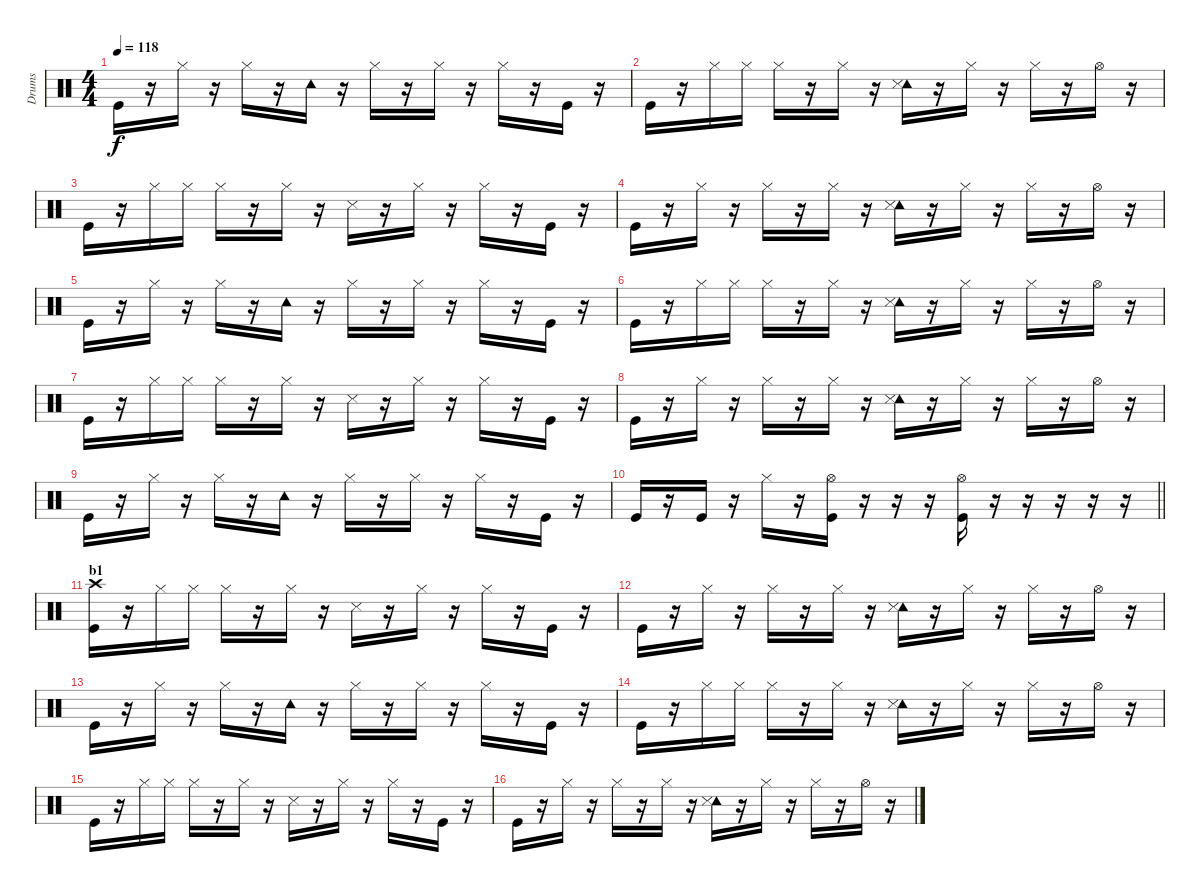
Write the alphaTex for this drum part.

\track ("Drums" "Drums") {instrument percussion}
\staff {score}
\articulation defaults
\ts (4 4)
\tempo 118
\clef neutral
\ks c "Kick (hit)".16{dy f}
r.16 "Hi-Hat (closed)".16 r.16 "Hi-Hat (closed)".16 r.16 "Tambourine (hit)".16 r.16 "Hi-Hat (closed)".16 r.16 "Hi-Hat (closed)".16 r.16 "Hi-Hat (closed)".16 r.16 "Kick (hit)".16 r.16 |
"Kick (hit)".16 r.16 "Hi-Hat (closed)".16 "Hi-Hat (closed)".16 "Hi-Hat (closed)".16 r.16 "Hi-Hat (closed)".16 r.16 ("Tambourine (hit)" "Snare (side stick) 3").16 r.16 "Hi-Hat (closed)".16 r.16 "Hi-Hat (closed)".16 r.16 "Hi-Hat (open)".16 r.16 |
"Kick (hit)".16 r.16 "Hi-Hat (closed)".16 "Hi-Hat (closed)".16 "Hi-Hat (closed)".16 r.16 "Hi-Hat (closed)".16 r.16 "Snare (side stick) 3".16 r.16 "Hi-Hat (closed)".16 r.16 "Hi-Hat (closed)".16 r.16 "Kick (hit)".16 r.16 |
"Kick (hit)".16 r.16 "Hi-Hat (closed)".16 r.16 "Hi-Hat (closed)".16 r.16 "Hi-Hat (closed)".16 r.16 ("Tambourine (hit)" "Snare (side stick) 3").16 r.16 "Hi-Hat (closed)".16 r.16 "Hi-Hat (closed)".16 r.16 "Hi-Hat (open)".16 r.16 |
"Kick (hit)".16 r.16 "Hi-Hat (closed)".16 r.16 "Hi-Hat (closed)".16 r.16 "Tambourine (hit)".16 r.16 "Hi-Hat (closed)".16 r.16 "Hi-Hat (closed)".16 r.16 "Hi-Hat (closed)".16 r.16 "Kick (hit)".16 r.16 |
"Kick (hit)".16 r.16 "Hi-Hat (closed)".16 "Hi-Hat (closed)".16 "Hi-Hat (closed)".16 r.16 "Hi-Hat (closed)".16 r.16 ("Tambourine (hit)" "Snare (side stick) 3").16 r.16 "Hi-Hat (closed)".16 r.16 "Hi-Hat (closed)".16 r.16 "Hi-Hat (open)".16 r.16 |
"Kick (hit)".16 r.16 "Hi-Hat (closed)".16 "Hi-Hat (closed)".16 "Hi-Hat (closed)".16 r.16 "Hi-Hat (closed)".16 r.16 "Snare (side stick) 3".16 r.16 "Hi-Hat (closed)".16 r.16 "Hi-Hat (closed)".16 r.16 "Kick (hit)".16 r.16 |
"Kick (hit)".16 r.16 "Hi-Hat (closed)".16 r.16 "Hi-Hat (closed)".16 r.16 "Hi-Hat (closed)".16 r.16 ("Tambourine (hit)" "Snare (side stick) 3").16 r.16 "Hi-Hat (closed)".16 r.16 "Hi-Hat (closed)".16 r.16 "Hi-Hat (open)".16 r.16 |
"Kick (hit)".16 r.16 "Hi-Hat (closed)".16 r.16 "Hi-Hat (closed)".16 r.16 "Tambourine (hit)".16 r.16 "Hi-Hat (closed)".16 r.16 "Hi-Hat (closed)".16 r.16 "Hi-Hat (closed)".16 r.16 "Kick (hit)".16 r.16 |
\barLineRight lightlight "Kick (hit)".16
r.16 "Kick (hit)".16 r.16 "Hi-Hat (closed)".16 r.16 ("Kick (hit)" "Hi-Hat (open)").16 r.16 r.16 r.16 ("Kick (hit)" "Hi-Hat (open)").16 r.16 r.16 r.16 r.16 r.16 |
\section ("" "b1")
("Kick (hit)" "Crash high (hit)").16 r.16 "Hi-Hat (closed)".16 "Hi-Hat (closed)".16 "Hi-Hat (closed)".16 r.16 "Hi-Hat (closed)".16 r.16 "Snare (side stick) 3".16 r.16 "Hi-Hat (closed)".16 r.16 "Hi-Hat (closed)".16 r.16 "Kick (hit)".16 r.16 |
"Kick (hit)".16 r.16 "Hi-Hat (closed)".16 r.16 "Hi-Hat (closed)".16 r.16 "Hi-Hat (closed)".16 r.16 ("Tambourine (hit)" "Snare (side stick) 3").16 r.16 "Hi-Hat (closed)".16 r.16 "Hi-Hat (closed)".16 r.16 "Hi-Hat (open)".16 r.16 |
"Kick (hit)".16 r.16 "Hi-Hat (closed)".16 r.16 "Hi-Hat (closed)".16 r.16 "Tambourine (hit)".16 r.16 "Hi-Hat (closed)".16 r.16 "Hi-Hat (closed)".16 r.16 "Hi-Hat (closed)".16 r.16 "Kick (hit)".16 r.16 |
"Kick (hit)".16 r.16 "Hi-Hat (closed)".16 "Hi-Hat (closed)".16 "Hi-Hat (closed)".16 r.16 "Hi-Hat (closed)".16 r.16 ("Tambourine (hit)" "Snare (side stick) 3").16 r.16 "Hi-Hat (closed)".16 r.16 "Hi-Hat (closed)".16 r.16 "Hi-Hat (open)".16 r.16 |
"Kick (hit)".16 r.16 "Hi-Hat (closed)".16 "Hi-Hat (closed)".16 "Hi-Hat (closed)".16 r.16 "Hi-Hat (closed)".16 r.16 "Snare (side stick) 3".16 r.16 "Hi-Hat (closed)".16 r.16 "Hi-Hat (closed)".16 r.16 "Kick (hit)".16 r.16 |
"Kick (hit)".16 r.16 "Hi-Hat (closed)".16 r.16 "Hi-Hat (closed)".16 r.16 "Hi-Hat (closed)".16 r.16 ("Tambourine (hit)" "Snare (side stick) 3").16 r.16 "Hi-Hat (closed)".16 r.16 "Hi-Hat (closed)".16 r.16 "Hi-Hat (open)".16 r.16
